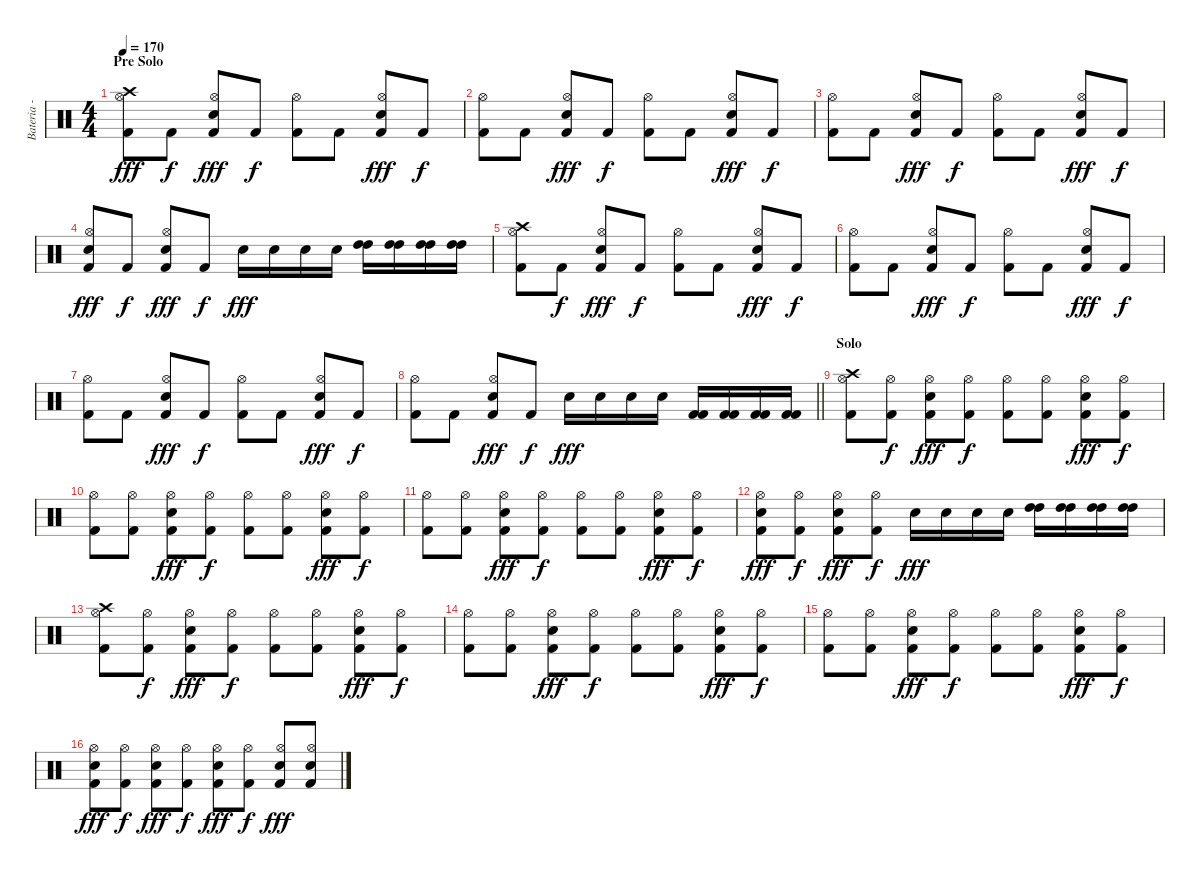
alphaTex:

\track ("Bateria - Larzon" "Bateria - ") {instrument percussion}
\staff {score}
\articulation defaults
\ts (4 4)
\section ("" "Pre Solo")
\tempo 170
\clef neutral
\ks c
("Crash high (hit)" "Kick (hit) 2" "Hi-Hat (open)").8{dy fff} "Kick (hit) 2".8{dy f} ("Kick (hit) 2" "Hi-Hat (open)" "Snare (hit) 2").8{dy fff} "Kick (hit) 2".8{dy f} ("Kick (hit) 2" "Hi-Hat (open)").8 "Kick (hit) 2".8 ("Kick (hit) 2" "Hi-Hat (open)" "Snare (hit) 2").8{dy fff} "Kick (hit) 2".8{dy f} |
("Kick (hit) 2" "Hi-Hat (open)").8 "Kick (hit) 2".8 ("Kick (hit) 2" "Hi-Hat (open)" "Snare (hit) 2").8{dy fff} "Kick (hit) 2".8{dy f} ("Kick (hit) 2" "Hi-Hat (open)").8 "Kick (hit) 2".8 ("Kick (hit) 2" "Hi-Hat (open)" "Snare (hit) 2").8{dy fff} "Kick (hit) 2".8{dy f} |
("Kick (hit) 2" "Hi-Hat (open)").8 "Kick (hit) 2".8 ("Kick (hit) 2" "Hi-Hat (open)" "Snare (hit) 2").8{dy fff} "Kick (hit) 2".8{dy f} ("Kick (hit) 2" "Hi-Hat (open)").8 "Kick (hit) 2".8 ("Kick (hit) 2" "Hi-Hat (open)" "Snare (hit) 2").8{dy fff} "Kick (hit) 2".8{dy f} |
("Kick (hit) 2" "Hi-Hat (open)" "Snare (hit) 2").8{dy fff} "Kick (hit) 2".8{dy f} ("Kick (hit) 2" "Hi-Hat (open)" "Snare (hit) 2").8{dy fff} "Kick (hit) 2".8{dy f} "Snare (hit) 2".16{dy fff} "Snare (hit) 2".16 "Snare (hit) 2".16 "Snare (hit) 2".16 ("High Tom (hit)" "High Tom (hit)").16 ("High Tom (hit)" "High Tom (hit)").16 ("High Tom (hit)" "High Tom (hit)").16 ("High Tom (hit)" "High Tom (hit)").16 |
("Crash high (hit)" "Kick (hit) 2" "Hi-Hat (open)").8 "Kick (hit) 2".8{dy f} ("Kick (hit) 2" "Hi-Hat (open)" "Snare (hit) 2").8{dy fff} "Kick (hit) 2".8{dy f} ("Kick (hit) 2" "Hi-Hat (open)").8 "Kick (hit) 2".8 ("Kick (hit) 2" "Hi-Hat (open)" "Snare (hit) 2").8{dy fff} "Kick (hit) 2".8{dy f} |
("Kick (hit) 2" "Hi-Hat (open)").8 "Kick (hit) 2".8 ("Kick (hit) 2" "Hi-Hat (open)" "Snare (hit) 2").8{dy fff} "Kick (hit) 2".8{dy f} ("Kick (hit) 2" "Hi-Hat (open)").8 "Kick (hit) 2".8 ("Kick (hit) 2" "Hi-Hat (open)" "Snare (hit) 2").8{dy fff} "Kick (hit) 2".8{dy f} |
("Kick (hit) 2" "Hi-Hat (open)").8 "Kick (hit) 2".8 ("Kick (hit) 2" "Hi-Hat (open)" "Snare (hit) 2").8{dy fff} "Kick (hit) 2".8{dy f} ("Kick (hit) 2" "Hi-Hat (open)").8 "Kick (hit) 2".8 ("Kick (hit) 2" "Hi-Hat (open)" "Snare (hit) 2").8{dy fff} "Kick (hit) 2".8{dy f} |
\barLineRight lightlight
("Kick (hit) 2" "Hi-Hat (open)").8 "Kick (hit) 2".8 ("Kick (hit) 2" "Hi-Hat (open)" "Snare (hit) 2").8{dy fff} "Kick (hit) 2".8{dy f} "Snare (hit) 2".16{dy fff} "Snare (hit) 2".16 "Snare (hit) 2".16 "Snare (hit) 2".16 ("Kick (hit) 2" "Kick (hit) 2").16 ("Kick (hit) 2" "Kick (hit) 2").16 ("Kick (hit) 2" "Kick (hit) 2").16 ("Kick (hit) 2" "Kick (hit) 2").16 |
\section ("" "Solo")
("Crash high (hit)" "Kick (hit) 2" "Hi-Hat (open)").8 ("Kick (hit) 2" "Hi-Hat (open)").8{dy f} ("Kick (hit) 2" "Hi-Hat (open)" "Snare (hit) 2").8{dy fff} ("Kick (hit) 2" "Hi-Hat (open)").8{dy f} ("Kick (hit) 2" "Hi-Hat (open)").8 ("Kick (hit) 2" "Hi-Hat (open)").8 ("Kick (hit) 2" "Hi-Hat (open)" "Snare (hit) 2").8{dy fff} ("Kick (hit) 2" "Hi-Hat (open)").8{dy f} |
("Kick (hit) 2" "Hi-Hat (open)").8 ("Kick (hit) 2" "Hi-Hat (open)").8 ("Kick (hit) 2" "Hi-Hat (open)" "Snare (hit) 2").8{dy fff} ("Kick (hit) 2" "Hi-Hat (open)").8{dy f} ("Kick (hit) 2" "Hi-Hat (open)").8 ("Kick (hit) 2" "Hi-Hat (open)").8 ("Kick (hit) 2" "Hi-Hat (open)" "Snare (hit) 2").8{dy fff} ("Kick (hit) 2" "Hi-Hat (open)").8{dy f} |
("Kick (hit) 2" "Hi-Hat (open)").8 ("Kick (hit) 2" "Hi-Hat (open)").8 ("Kick (hit) 2" "Hi-Hat (open)" "Snare (hit) 2").8{dy fff} ("Kick (hit) 2" "Hi-Hat (open)").8{dy f} ("Kick (hit) 2" "Hi-Hat (open)").8 ("Kick (hit) 2" "Hi-Hat (open)").8 ("Kick (hit) 2" "Hi-Hat (open)" "Snare (hit) 2").8{dy fff} ("Kick (hit) 2" "Hi-Hat (open)").8{dy f} |
("Kick (hit) 2" "Hi-Hat (open)" "Snare (hit) 2").8{dy fff} ("Kick (hit) 2" "Hi-Hat (open)").8{dy f} ("Kick (hit) 2" "Hi-Hat (open)" "Snare (hit) 2").8{dy fff} ("Kick (hit) 2" "Hi-Hat (open)").8{dy f} "Snare (hit) 2".16{dy fff} "Snare (hit) 2".16 "Snare (hit) 2".16 "Snare (hit) 2".16 ("High Tom (hit)" "High Tom (hit)").16 ("High Tom (hit)" "High Tom (hit)").16 ("High Tom (hit)" "High Tom (hit)").16 ("High Tom (hit)" "High Tom (hit)").16 |
("Crash high (hit)" "Kick (hit) 2" "Hi-Hat (open)").8 ("Kick (hit) 2" "Hi-Hat (open)").8{dy f} ("Kick (hit) 2" "Hi-Hat (open)" "Snare (hit) 2").8{dy fff} ("Kick (hit) 2" "Hi-Hat (open)").8{dy f} ("Kick (hit) 2" "Hi-Hat (open)").8 ("Kick (hit) 2" "Hi-Hat (open)").8 ("Kick (hit) 2" "Hi-Hat (open)" "Snare (hit) 2").8{dy fff} ("Kick (hit) 2" "Hi-Hat (open)").8{dy f} |
("Kick (hit) 2" "Hi-Hat (open)").8 ("Kick (hit) 2" "Hi-Hat (open)").8 ("Kick (hit) 2" "Hi-Hat (open)" "Snare (hit) 2").8{dy fff} ("Kick (hit) 2" "Hi-Hat (open)").8{dy f} ("Kick (hit) 2" "Hi-Hat (open)").8 ("Kick (hit) 2" "Hi-Hat (open)").8 ("Kick (hit) 2" "Hi-Hat (open)" "Snare (hit) 2").8{dy fff} ("Kick (hit) 2" "Hi-Hat (open)").8{dy f} |
("Kick (hit) 2" "Hi-Hat (open)").8 ("Kick (hit) 2" "Hi-Hat (open)").8 ("Kick (hit) 2" "Hi-Hat (open)" "Snare (hit) 2").8{dy fff} ("Kick (hit) 2" "Hi-Hat (open)").8{dy f} ("Kick (hit) 2" "Hi-Hat (open)").8 ("Kick (hit) 2" "Hi-Hat (open)").8 ("Kick (hit) 2" "Hi-Hat (open)" "Snare (hit) 2").8{dy fff} ("Kick (hit) 2" "Hi-Hat (open)").8{dy f} |
("Kick (hit) 2" "Hi-Hat (open)" "Snare (hit) 2").8{dy fff} ("Kick (hit) 2" "Hi-Hat (open)").8{dy f} ("Kick (hit) 2" "Hi-Hat (open)" "Snare (hit) 2").8{dy fff} ("Kick (hit) 2" "Hi-Hat (open)").8{dy f} ("Kick (hit) 2" "Hi-Hat (open)" "Snare (hit) 2").8{dy fff} ("Kick (hit) 2" "Hi-Hat (open)").8{dy f} ("Kick (hit) 2" "Hi-Hat (open)" "Snare (hit) 2").8{dy fff} ("Kick (hit) 2" "Hi-Hat (open)" "Snare (hit) 2").8
